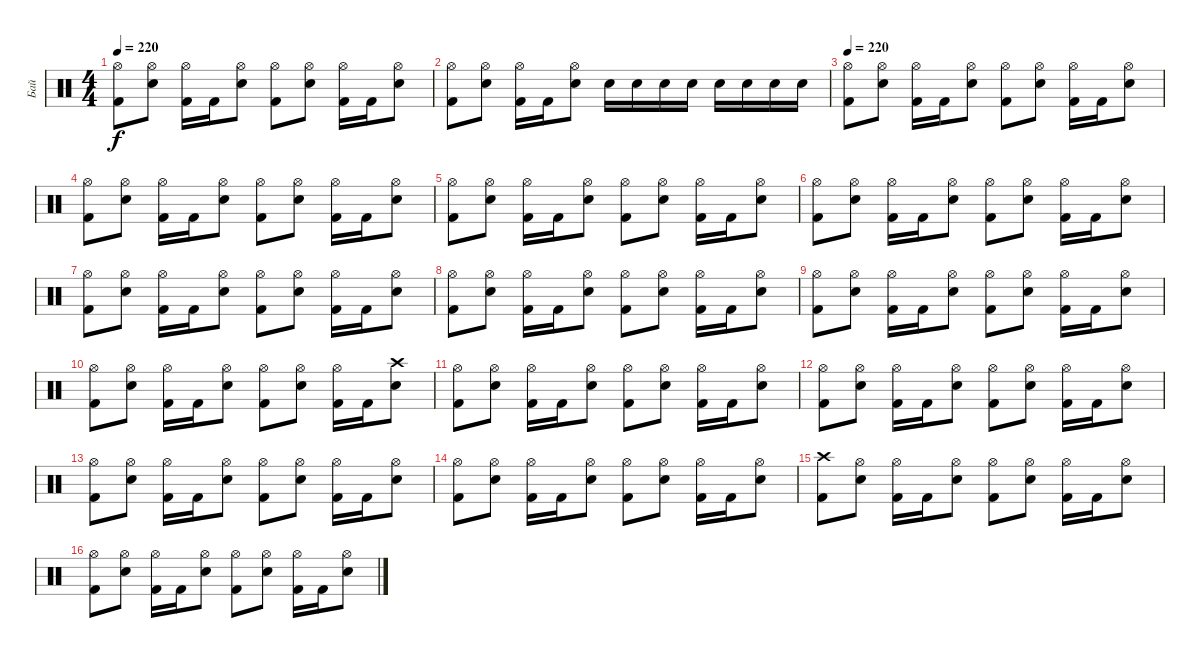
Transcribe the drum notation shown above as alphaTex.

\track ("Бай" "Бай") {instrument percussion}
\staff {score}
\articulation defaults
\ts (4 4)
\tempo 220
\clef neutral
\ks c
("Hi-Hat (open)" "Kick (hit) 2").8{dy f} ("Hi-Hat (open)" "Snare (hit) 2").8 ("Hi-Hat (open)" "Kick (hit) 2").16 "Kick (hit) 2".16 ("Hi-Hat (open)" "Snare (hit) 2").8 ("Hi-Hat (open)" "Kick (hit) 2").8 ("Hi-Hat (open)" "Snare (hit) 2").8 ("Hi-Hat (open)" "Kick (hit) 2").16 "Kick (hit) 2".16 ("Hi-Hat (open)" "Snare (hit) 2").8 |
("Hi-Hat (open)" "Kick (hit) 2").8 ("Hi-Hat (open)" "Snare (hit) 2").8 ("Hi-Hat (open)" "Kick (hit) 2").16 "Kick (hit) 2".16 ("Hi-Hat (open)" "Snare (hit) 2").8 "Snare (hit) 2".16 "Snare (hit) 2".16 "Snare (hit) 2".16 "Snare (hit) 2".16 "Snare (hit) 2".16 "Snare (hit) 2".16 "Snare (hit) 2".16 "Snare (hit) 2".16 |
\tempo 220
("Hi-Hat (open)" "Kick (hit) 2").8 ("Hi-Hat (open)" "Snare (hit) 2").8 ("Hi-Hat (open)" "Kick (hit) 2").16 "Kick (hit) 2".16 ("Hi-Hat (open)" "Snare (hit) 2").8 ("Hi-Hat (open)" "Kick (hit) 2").8 ("Hi-Hat (open)" "Snare (hit) 2").8 ("Hi-Hat (open)" "Kick (hit) 2").16 "Kick (hit) 2".16 ("Hi-Hat (open)" "Snare (hit) 2").8 |
("Hi-Hat (open)" "Kick (hit) 2").8 ("Hi-Hat (open)" "Snare (hit) 2").8 ("Hi-Hat (open)" "Kick (hit) 2").16 "Kick (hit) 2".16 ("Hi-Hat (open)" "Snare (hit) 2").8 ("Hi-Hat (open)" "Kick (hit) 2").8 ("Hi-Hat (open)" "Snare (hit) 2").8 ("Hi-Hat (open)" "Kick (hit) 2").16 "Kick (hit) 2".16 ("Hi-Hat (open)" "Snare (hit) 2").8 |
("Hi-Hat (open)" "Kick (hit) 2").8 ("Hi-Hat (open)" "Snare (hit) 2").8 ("Hi-Hat (open)" "Kick (hit) 2").16 "Kick (hit) 2".16 ("Hi-Hat (open)" "Snare (hit) 2").8 ("Hi-Hat (open)" "Kick (hit) 2").8 ("Hi-Hat (open)" "Snare (hit) 2").8 ("Hi-Hat (open)" "Kick (hit) 2").16 "Kick (hit) 2".16 ("Hi-Hat (open)" "Snare (hit) 2").8 |
("Hi-Hat (open)" "Kick (hit) 2").8 ("Hi-Hat (open)" "Snare (hit) 2").8 ("Hi-Hat (open)" "Kick (hit) 2").16 "Kick (hit) 2".16 ("Hi-Hat (open)" "Snare (hit) 2").8 ("Hi-Hat (open)" "Kick (hit) 2").8 ("Hi-Hat (open)" "Snare (hit) 2").8 ("Hi-Hat (open)" "Kick (hit) 2").16 "Kick (hit) 2".16 ("Hi-Hat (open)" "Snare (hit) 2").8 |
("Hi-Hat (open)" "Kick (hit) 2").8 ("Hi-Hat (open)" "Snare (hit) 2").8 ("Hi-Hat (open)" "Kick (hit) 2").16 "Kick (hit) 2".16 ("Hi-Hat (open)" "Snare (hit) 2").8 ("Hi-Hat (open)" "Kick (hit) 2").8 ("Hi-Hat (open)" "Snare (hit) 2").8 ("Hi-Hat (open)" "Kick (hit) 2").16 "Kick (hit) 2".16 ("Hi-Hat (open)" "Snare (hit) 2").8 |
("Hi-Hat (open)" "Kick (hit) 2").8 ("Hi-Hat (open)" "Snare (hit) 2").8 ("Hi-Hat (open)" "Kick (hit) 2").16 "Kick (hit) 2".16 ("Hi-Hat (open)" "Snare (hit) 2").8 ("Hi-Hat (open)" "Kick (hit) 2").8 ("Hi-Hat (open)" "Snare (hit) 2").8 ("Hi-Hat (open)" "Kick (hit) 2").16 "Kick (hit) 2".16 ("Hi-Hat (open)" "Snare (hit) 2").8 |
("Hi-Hat (open)" "Kick (hit) 2").8 ("Hi-Hat (open)" "Snare (hit) 2").8 ("Hi-Hat (open)" "Kick (hit) 2").16 "Kick (hit) 2".16 ("Hi-Hat (open)" "Snare (hit) 2").8 ("Hi-Hat (open)" "Kick (hit) 2").8 ("Hi-Hat (open)" "Snare (hit) 2").8 ("Hi-Hat (open)" "Kick (hit) 2").16 "Kick (hit) 2".16 ("Hi-Hat (open)" "Snare (hit) 2").8 |
("Hi-Hat (open)" "Kick (hit) 2").8 ("Hi-Hat (open)" "Snare (hit) 2").8 ("Hi-Hat (open)" "Kick (hit) 2").16 "Kick (hit) 2".16 ("Hi-Hat (open)" "Snare (hit) 2").8 ("Hi-Hat (open)" "Kick (hit) 2").8 ("Hi-Hat (open)" "Snare (hit) 2").8 ("Hi-Hat (open)" "Kick (hit) 2").16 "Kick (hit) 2".16 ("Crash high (hit)" "Snare (hit) 2").8 |
("Hi-Hat (open)" "Kick (hit) 2").8 ("Hi-Hat (open)" "Snare (hit) 2").8 ("Hi-Hat (open)" "Kick (hit) 2").16 "Kick (hit) 2".16 ("Hi-Hat (open)" "Snare (hit) 2").8 ("Hi-Hat (open)" "Kick (hit) 2").8 ("Hi-Hat (open)" "Snare (hit) 2").8 ("Hi-Hat (open)" "Kick (hit) 2").16 "Kick (hit) 2".16 ("Hi-Hat (open)" "Snare (hit) 2").8 |
("Hi-Hat (open)" "Kick (hit) 2").8 ("Hi-Hat (open)" "Snare (hit) 2").8 ("Hi-Hat (open)" "Kick (hit) 2").16 "Kick (hit) 2".16 ("Hi-Hat (open)" "Snare (hit) 2").8 ("Hi-Hat (open)" "Kick (hit) 2").8 ("Hi-Hat (open)" "Snare (hit) 2").8 ("Hi-Hat (open)" "Kick (hit) 2").16 "Kick (hit) 2".16 ("Hi-Hat (open)" "Snare (hit) 2").8 |
("Hi-Hat (open)" "Kick (hit) 2").8 ("Hi-Hat (open)" "Snare (hit) 2").8 ("Hi-Hat (open)" "Kick (hit) 2").16 "Kick (hit) 2".16 ("Hi-Hat (open)" "Snare (hit) 2").8 ("Hi-Hat (open)" "Kick (hit) 2").8 ("Hi-Hat (open)" "Snare (hit) 2").8 ("Hi-Hat (open)" "Kick (hit) 2").16 "Kick (hit) 2".16 ("Hi-Hat (open)" "Snare (hit) 2").8 |
("Hi-Hat (open)" "Kick (hit) 2").8 ("Hi-Hat (open)" "Snare (hit) 2").8 ("Hi-Hat (open)" "Kick (hit) 2").16 "Kick (hit) 2".16 ("Hi-Hat (open)" "Snare (hit) 2").8 ("Hi-Hat (open)" "Kick (hit) 2").8 ("Hi-Hat (open)" "Snare (hit) 2").8 ("Hi-Hat (open)" "Kick (hit) 2").16 "Kick (hit) 2".16 ("Hi-Hat (open)" "Snare (hit) 2").8 |
("Crash high (hit)" "Kick (hit) 2").8 ("Hi-Hat (open)" "Snare (hit) 2").8 ("Hi-Hat (open)" "Kick (hit) 2").16 "Kick (hit) 2".16 ("Hi-Hat (open)" "Snare (hit) 2").8 ("Hi-Hat (open)" "Kick (hit) 2").8 ("Hi-Hat (open)" "Snare (hit) 2").8 ("Hi-Hat (open)" "Kick (hit) 2").16 "Kick (hit) 2".16 ("Hi-Hat (open)" "Snare (hit) 2").8 |
("Hi-Hat (open)" "Kick (hit) 2").8 ("Hi-Hat (open)" "Snare (hit) 2").8 ("Hi-Hat (open)" "Kick (hit) 2").16 "Kick (hit) 2".16 ("Hi-Hat (open)" "Snare (hit) 2").8 ("Hi-Hat (open)" "Kick (hit) 2").8 ("Hi-Hat (open)" "Snare (hit) 2").8 ("Hi-Hat (open)" "Kick (hit) 2").16 "Kick (hit) 2".16 ("Hi-Hat (open)" "Snare (hit) 2").8
